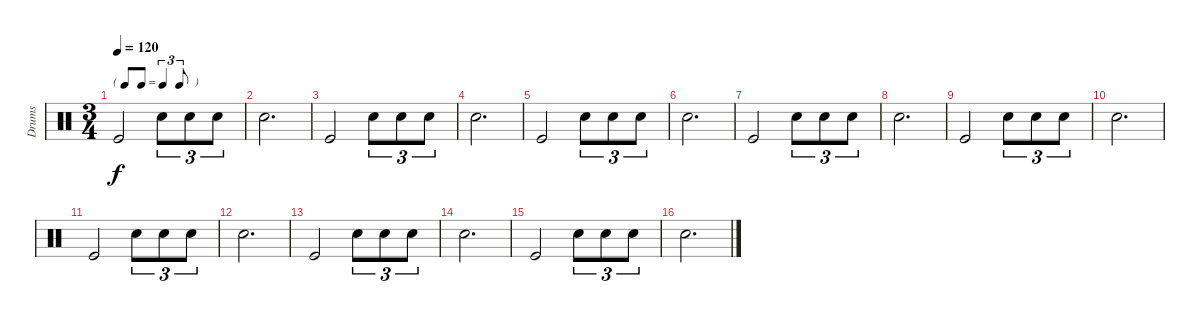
\track ("Drums" "Drums") {instrument percussion}
\staff {score}
\articulation defaults
\ts (3 4)
\tf triplet8th
\tempo 120
\clef neutral
\ks c "Kick (hit)".2{dy f} "Snare (hit) 2".8{tu (3 2)} "Snare (hit) 2".8{tu (3 2)} "Snare (hit) 2".8{tu (3 2)}
|
"Snare (hit) 2".2{d} |
"Kick (hit)".2 "Snare (hit) 2".8{tu (3 2)} "Snare (hit) 2".8{tu (3 2)} "Snare (hit) 2".8{tu (3 2)} |
"Snare (hit) 2".2{d} |
"Kick (hit)".2 "Snare (hit) 2".8{tu (3 2)} "Snare (hit) 2".8{tu (3 2)} "Snare (hit) 2".8{tu (3 2)} |
"Snare (hit) 2".2{d} |
"Kick (hit)".2 "Snare (hit) 2".8{tu (3 2)} "Snare (hit) 2".8{tu (3 2)} "Snare (hit) 2".8{tu (3 2)} |
"Snare (hit) 2".2{d} |
"Kick (hit)".2 "Snare (hit) 2".8{tu (3 2)} "Snare (hit) 2".8{tu (3 2)} "Snare (hit) 2".8{tu (3 2)} |
"Snare (hit) 2".2{d} |
"Kick (hit)".2 "Snare (hit) 2".8{tu (3 2)} "Snare (hit) 2".8{tu (3 2)} "Snare (hit) 2".8{tu (3 2)} |
"Snare (hit) 2".2{d} |
"Kick (hit)".2 "Snare (hit) 2".8{tu (3 2)} "Snare (hit) 2".8{tu (3 2)} "Snare (hit) 2".8{tu (3 2)} |
"Snare (hit) 2".2{d} |
"Kick (hit)".2 "Snare (hit) 2".8{tu (3 2)} "Snare (hit) 2".8{tu (3 2)} "Snare (hit) 2".8{tu (3 2)} |
"Snare (hit) 2".2{d}
